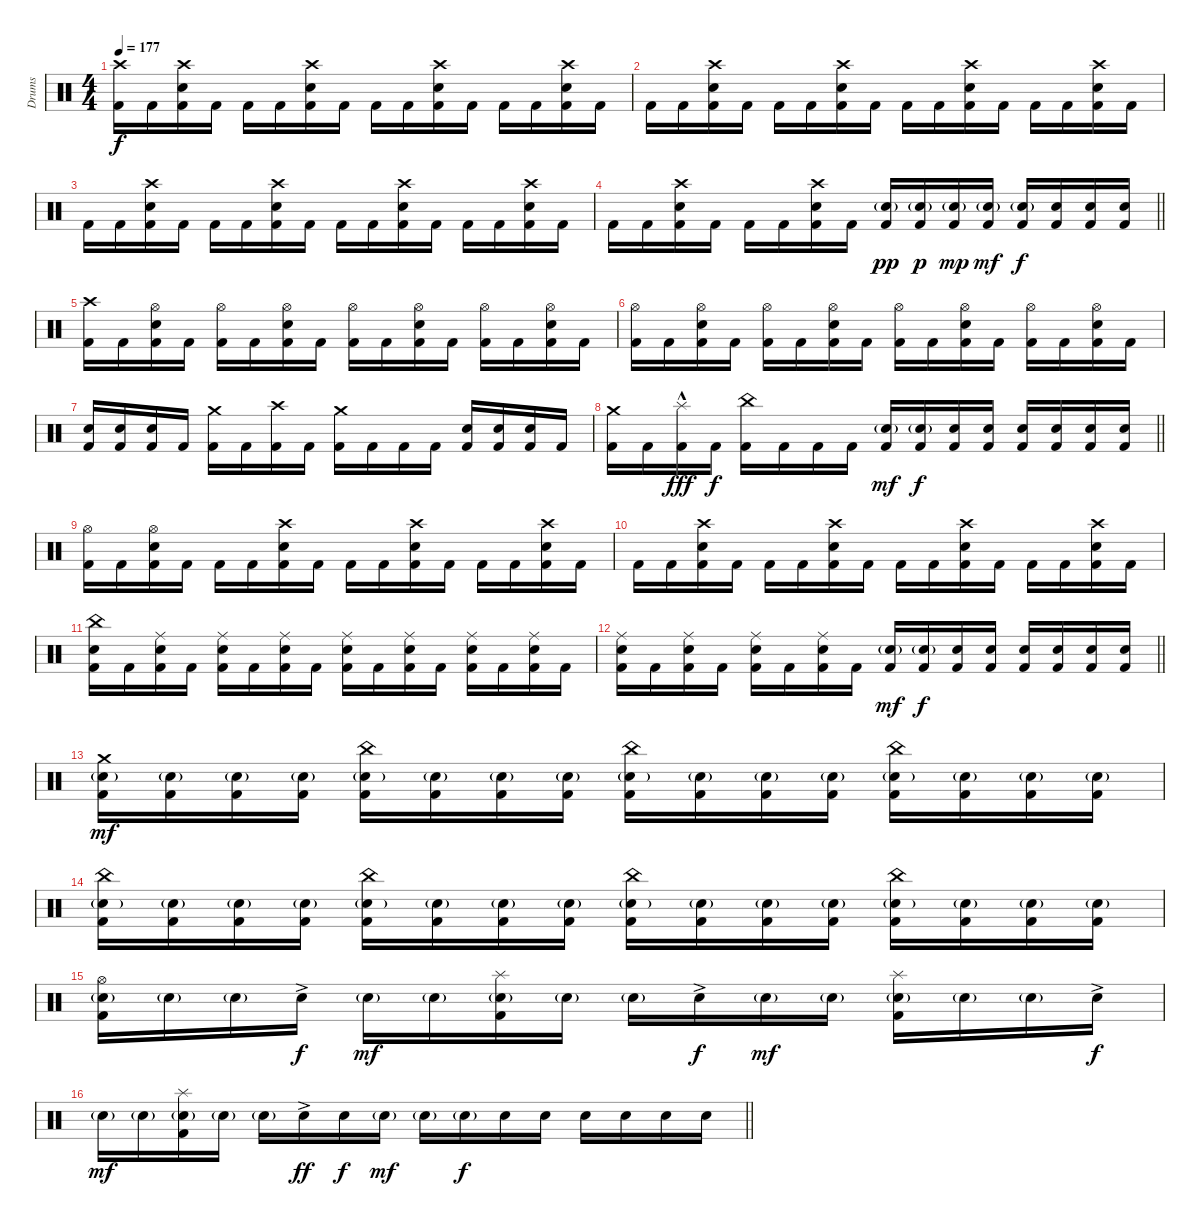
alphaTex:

\track ("Drums" "Drums") {instrument percussion}
\staff {score}
\articulation defaults
\ts (4 4)
\section ("" "")
\tempo 177
\clef neutral
\ks c
("Crash high (hit)" "Kick (hit) 2").16{dy f} "Kick (hit) 2".16 ("Crash high (hit)" "Electric Snare (hit)" "Kick (hit) 2").16 "Kick (hit) 2".16 "Kick (hit) 2".16 "Kick (hit) 2".16 ("Crash high (hit)" "Electric Snare (hit)" "Kick (hit) 2").16 "Kick (hit) 2".16 "Kick (hit) 2".16 "Kick (hit) 2".16 ("Crash high (hit)" "Electric Snare (hit)" "Kick (hit) 2").16 "Kick (hit) 2".16 "Kick (hit) 2".16 "Kick (hit) 2".16 ("Crash high (hit)" "Electric Snare (hit)" "Kick (hit) 2").16 "Kick (hit) 2".16 |
"Kick (hit) 2".16 "Kick (hit) 2".16 ("Crash high (hit)" "Electric Snare (hit)" "Kick (hit) 2").16 "Kick (hit) 2".16 "Kick (hit) 2".16 "Kick (hit) 2".16 ("Crash high (hit)" "Electric Snare (hit)" "Kick (hit) 2").16 "Kick (hit) 2".16 "Kick (hit) 2".16 "Kick (hit) 2".16 ("Crash high (hit)" "Electric Snare (hit)" "Kick (hit) 2").16 "Kick (hit) 2".16 "Kick (hit) 2".16 "Kick (hit) 2".16 ("Crash high (hit)" "Electric Snare (hit)" "Kick (hit) 2").16 "Kick (hit) 2".16 |
"Kick (hit) 2".16 "Kick (hit) 2".16 ("Crash high (hit)" "Electric Snare (hit)" "Kick (hit) 2").16 "Kick (hit) 2".16 "Kick (hit) 2".16 "Kick (hit) 2".16 ("Crash high (hit)" "Electric Snare (hit)" "Kick (hit) 2").16 "Kick (hit) 2".16 "Kick (hit) 2".16 "Kick (hit) 2".16 ("Crash high (hit)" "Electric Snare (hit)" "Kick (hit) 2").16 "Kick (hit) 2".16 "Kick (hit) 2".16 "Kick (hit) 2".16 ("Crash high (hit)" "Electric Snare (hit)" "Kick (hit) 2").16 "Kick (hit) 2".16 |
\barLineRight lightlight "Kick (hit) 2".16 "Kick (hit) 2".16
("Crash high (hit)" "Electric Snare (hit)" "Kick (hit) 2").16 "Kick (hit) 2".16 "Kick (hit) 2".16 "Kick (hit) 2".16 ("Crash high (hit)" "Electric Snare (hit)" "Kick (hit) 2").16 "Kick (hit) 2".16 ("Electric Snare (hit)"{g} "Kick (hit) 2").16{dy pp} ("Electric Snare (hit)"{g} "Kick (hit) 2").16{dy p} ("Electric Snare (hit)"{g} "Kick (hit) 2").16{dy mp} ("Electric Snare (hit)"{g} "Kick (hit) 2").16{dy mf} ("Electric Snare (hit)"{g} "Kick (hit) 2").16{dy f} ("Electric Snare (hit)" "Kick (hit) 2").16 ("Electric Snare (hit)" "Kick (hit) 2").16 ("Electric Snare (hit)" "Kick (hit) 2").16 |
("Crash high (hit)" "Kick (hit) 2").16 "Kick (hit) 2".16 ("Hi-Hat (open)" "Electric Snare (hit)" "Kick (hit) 2").16 "Kick (hit) 2".16 ("Hi-Hat (open)" "Kick (hit) 2").16 "Kick (hit) 2".16 ("Hi-Hat (open)" "Electric Snare (hit)" "Kick (hit) 2").16 "Kick (hit) 2".16 ("Hi-Hat (open)" "Kick (hit) 2").16 "Kick (hit) 2".16 ("Hi-Hat (open)" "Electric Snare (hit)" "Kick (hit) 2").16 "Kick (hit) 2".16 ("Hi-Hat (open)" "Kick (hit) 2").16 "Kick (hit) 2".16 ("Hi-Hat (open)" "Electric Snare (hit)" "Kick (hit) 2").16 "Kick (hit) 2".16 |
("Hi-Hat (open)" "Kick (hit) 2").16 "Kick (hit) 2".16 ("Hi-Hat (open)" "Electric Snare (hit)" "Kick (hit) 2").16 "Kick (hit) 2".16 ("Hi-Hat (open)" "Kick (hit) 2").16 "Kick (hit) 2".16 ("Hi-Hat (open)" "Electric Snare (hit)" "Kick (hit) 2").16 "Kick (hit) 2".16 ("Hi-Hat (open)" "Kick (hit) 2").16 "Kick (hit) 2".16 ("Hi-Hat (open)" "Electric Snare (hit)" "Kick (hit) 2").16 "Kick (hit) 2".16 ("Hi-Hat (open)" "Kick (hit) 2").16 "Kick (hit) 2".16 ("Hi-Hat (open)" "Electric Snare (hit)" "Kick (hit) 2").16 "Kick (hit) 2".16 |
("Electric Snare (hit)" "Kick (hit) 2").16 ("Electric Snare (hit)" "Kick (hit) 2").16 ("Electric Snare (hit)" "Kick (hit) 2").16 "Kick (hit) 2".16 ("Crash medium (hit)" "Kick (hit) 2").16 "Kick (hit) 2".16 ("Crash high (hit)" "Kick (hit) 2").16 "Kick (hit) 2".16 ("Crash medium (hit)" "Kick (hit) 2").16 "Kick (hit) 2".16 "Kick (hit) 2".16 "Kick (hit) 2".16 ("Electric Snare (hit)" "Kick (hit) 2").16 ("Electric Snare (hit)" "Kick (hit) 2").16 ("Electric Snare (hit)" "Kick (hit) 2").16 "Kick (hit) 2".16 |
\barLineRight lightlight
("Crash medium (hit)" "Kick (hit) 2").16 "Kick (hit) 2".16 ("Splash (hit)"{hac} "Kick (hit) 2").16{dy fff} "Kick (hit) 2".16{dy f} ("China (hit)" "Kick (hit) 2").16 "Kick (hit) 2".16 "Kick (hit) 2".16 "Kick (hit) 2".16 ("Electric Snare (hit)"{g} "Kick (hit) 2").16{dy mf} ("Electric Snare (hit)"{g} "Kick (hit) 2").16{dy f} ("Electric Snare (hit)" "Kick (hit) 2").16 ("Electric Snare (hit)" "Kick (hit) 2").16 ("Electric Snare (hit)" "Kick (hit) 2").16 ("Electric Snare (hit)" "Kick (hit) 2").16 ("Electric Snare (hit)" "Kick (hit) 2").16 ("Electric Snare (hit)" "Kick (hit) 2").16 |
("Hi-Hat (open)" "Kick (hit) 2").16 "Kick (hit) 2".16 ("Hi-Hat (open)" "Electric Snare (hit)" "Kick (hit) 2").16 "Kick (hit) 2".16 "Kick (hit) 2".16 "Kick (hit) 2".16 ("Crash high (hit)" "Electric Snare (hit)" "Kick (hit) 2").16 "Kick (hit) 2".16 "Kick (hit) 2".16 "Kick (hit) 2".16 ("Crash high (hit)" "Electric Snare (hit)" "Kick (hit) 2").16 "Kick (hit) 2".16 "Kick (hit) 2".16 "Kick (hit) 2".16 ("Crash high (hit)" "Electric Snare (hit)" "Kick (hit) 2").16 "Kick (hit) 2".16 |
"Kick (hit) 2".16 "Kick (hit) 2".16 ("Crash high (hit)" "Electric Snare (hit)" "Kick (hit) 2").16 "Kick (hit) 2".16 "Kick (hit) 2".16 "Kick (hit) 2".16 ("Crash high (hit)" "Electric Snare (hit)" "Kick (hit) 2").16 "Kick (hit) 2".16 "Kick (hit) 2".16 "Kick (hit) 2".16 ("Crash high (hit)" "Electric Snare (hit)" "Kick (hit) 2").16 "Kick (hit) 2".16 "Kick (hit) 2".16 "Kick (hit) 2".16 ("Crash high (hit)" "Electric Snare (hit)" "Kick (hit) 2").16 "Kick (hit) 2".16 |
("China (hit)" "Electric Snare (hit)" "Kick (hit) 2").16 "Kick (hit) 2".16 ("Ride (middle)" "Electric Snare (hit)" "Kick (hit) 2").16 "Kick (hit) 2".16 ("Ride (middle)" "Electric Snare (hit)" "Kick (hit) 2").16 "Kick (hit) 2".16 ("Ride (middle)" "Electric Snare (hit)" "Kick (hit) 2").16 "Kick (hit) 2".16 ("Ride (middle)" "Electric Snare (hit)" "Kick (hit) 2").16 "Kick (hit) 2".16 ("Ride (middle)" "Electric Snare (hit)" "Kick (hit) 2").16 "Kick (hit) 2".16 ("Ride (middle)" "Electric Snare (hit)" "Kick (hit) 2").16 "Kick (hit) 2".16 ("Ride (middle)" "Electric Snare (hit)" "Kick (hit) 2").16 "Kick (hit) 2".16 |
\barLineRight lightlight
("Ride (middle)" "Electric Snare (hit)" "Kick (hit) 2").16 "Kick (hit) 2".16 ("Ride (middle)" "Electric Snare (hit)" "Kick (hit) 2").16 "Kick (hit) 2".16 ("Ride (middle)" "Electric Snare (hit)" "Kick (hit) 2").16 "Kick (hit) 2".16 ("Ride (middle)" "Electric Snare (hit)" "Kick (hit) 2").16 "Kick (hit) 2".16 ("Electric Snare (hit)"{g} "Kick (hit) 2").16{dy mf} ("Electric Snare (hit)"{g} "Kick (hit) 2").16{dy f} ("Electric Snare (hit)" "Kick (hit) 2").16 ("Electric Snare (hit)" "Kick (hit) 2").16 ("Electric Snare (hit)" "Kick (hit) 2").16 ("Electric Snare (hit)" "Kick (hit) 2").16 ("Electric Snare (hit)" "Kick (hit) 2").16 ("Electric Snare (hit)" "Kick (hit) 2").16 |
("Crash medium (hit)" "Electric Snare (hit)"{g} "Kick (hit) 2").16{dy mf} ("Electric Snare (hit)"{g} "Kick (hit) 2").16 ("Electric Snare (hit)"{g} "Kick (hit) 2").16 ("Electric Snare (hit)"{g} "Kick (hit) 2").16 ("China (hit)" "Electric Snare (hit)"{g} "Kick (hit) 2").16 ("Electric Snare (hit)"{g} "Kick (hit) 2").16 ("Electric Snare (hit)"{g} "Kick (hit) 2").16 ("Electric Snare (hit)"{g} "Kick (hit) 2").16 ("China (hit)" "Electric Snare (hit)"{g} "Kick (hit) 2").16 ("Electric Snare (hit)"{g} "Kick (hit) 2").16 ("Electric Snare (hit)"{g} "Kick (hit) 2").16 ("Electric Snare (hit)"{g} "Kick (hit) 2").16 ("China (hit)" "Electric Snare (hit)"{g} "Kick (hit) 2").16 ("Electric Snare (hit)"{g} "Kick (hit) 2").16 ("Electric Snare (hit)"{g} "Kick (hit) 2").16 ("Electric Snare (hit)"{g} "Kick (hit) 2").16 |
("China (hit)" "Electric Snare (hit)"{g} "Kick (hit) 2").16 ("Electric Snare (hit)"{g} "Kick (hit) 2").16 ("Electric Snare (hit)"{g} "Kick (hit) 2").16 ("Electric Snare (hit)"{g} "Kick (hit) 2").16 ("China (hit)" "Electric Snare (hit)"{g} "Kick (hit) 2").16 ("Electric Snare (hit)"{g} "Kick (hit) 2").16 ("Electric Snare (hit)"{g} "Kick (hit) 2").16 ("Electric Snare (hit)"{g} "Kick (hit) 2").16 ("China (hit)" "Electric Snare (hit)"{g} "Kick (hit) 2").16 ("Electric Snare (hit)"{g} "Kick (hit) 2").16 ("Electric Snare (hit)"{g} "Kick (hit) 2").16 ("Electric Snare (hit)"{g} "Kick (hit) 2").16 ("China (hit)" "Electric Snare (hit)"{g} "Kick (hit) 2").16 ("Electric Snare (hit)"{g} "Kick (hit) 2").16 ("Electric Snare (hit)"{g} "Kick (hit) 2").16 ("Electric Snare (hit)"{g} "Kick (hit) 2").16 |
("Hi-Hat (open)" "Electric Snare (hit)"{g} "Kick (hit) 2").16 "Electric Snare (hit)"{g}.16 "Electric Snare (hit)"{g}.16 "Electric Snare (hit)"{ac}.16{dy f} "Electric Snare (hit)"{g}.16{dy mf} "Electric Snare (hit)"{g}.16 ("Splash (hit)" "Electric Snare (hit)"{g} "Kick (hit) 2").16 "Electric Snare (hit)"{g}.16 "Electric Snare (hit)"{g}.16 "Electric Snare (hit)"{ac}.16{dy f} "Electric Snare (hit)"{g}.16{dy mf} "Electric Snare (hit)"{g}.16 ("Splash (hit)" "Electric Snare (hit)"{g} "Kick (hit) 2").16 "Electric Snare (hit)"{g}.16 "Electric Snare (hit)"{g}.16 "Electric Snare (hit)"{ac}.16{dy f} |
\barLineRight lightlight "Electric Snare (hit)"{g}.16{dy mf} "Electric Snare (hit)"{g}.16
("Splash (hit)" "Electric Snare (hit)"{g} "Kick (hit) 2").16 "Electric Snare (hit)"{g}.16 "Electric Snare (hit)"{g}.16 "Electric Snare (hit)"{ac}.16{dy ff} "Electric Snare (hit)".16{dy f} "Electric Snare (hit)"{g}.16{dy mf} "Electric Snare (hit)"{g}.16 "Electric Snare (hit)"{g}.16{dy f} "Electric Snare (hit)".16 "Electric Snare (hit)".16 "Electric Snare (hit)".16 "Electric Snare (hit)".16 "Electric Snare (hit)".16 "Electric Snare (hit)".16
